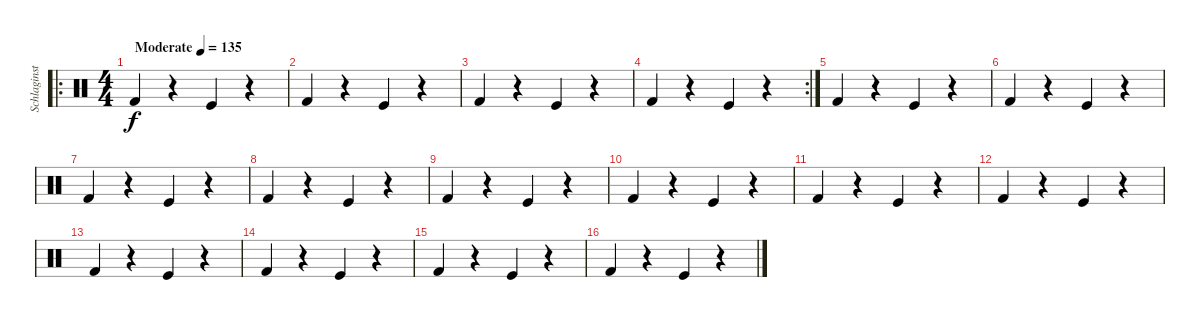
\track ("Schlaginstrumente - Auswahl" "Schlaginst") {instrument percussion}
\staff {score}
\articulation defaults
\ro
\ts (4 4)
\tempo (135 "Moderate")
\clef neutral
\ks c "Kick (hit) 2".4{dy f}
r.4 "Kick (hit)".4 r.4 |
"Kick (hit) 2".4 r.4 "Kick (hit)".4 r.4 |
"Kick (hit) 2".4 r.4 "Kick (hit)".4 r.4 |
\rc 2 "Kick (hit) 2".4
r.4 "Kick (hit)".4 r.4 |
"Kick (hit) 2".4 r.4 "Kick (hit)".4 r.4 |
"Kick (hit) 2".4 r.4 "Kick (hit)".4 r.4 |
"Kick (hit) 2".4 r.4 "Kick (hit)".4 r.4 |
"Kick (hit) 2".4 r.4 "Kick (hit)".4 r.4 |
"Kick (hit) 2".4 r.4 "Kick (hit)".4 r.4 |
"Kick (hit) 2".4 r.4 "Kick (hit)".4 r.4 |
"Kick (hit) 2".4 r.4 "Kick (hit)".4 r.4 |
"Kick (hit) 2".4 r.4 "Kick (hit)".4 r.4 |
"Kick (hit) 2".4 r.4 "Kick (hit)".4 r.4 |
"Kick (hit) 2".4 r.4 "Kick (hit)".4 r.4 |
"Kick (hit) 2".4 r.4 "Kick (hit)".4 r.4 |
"Kick (hit) 2".4 r.4 "Kick (hit)".4 r.4
